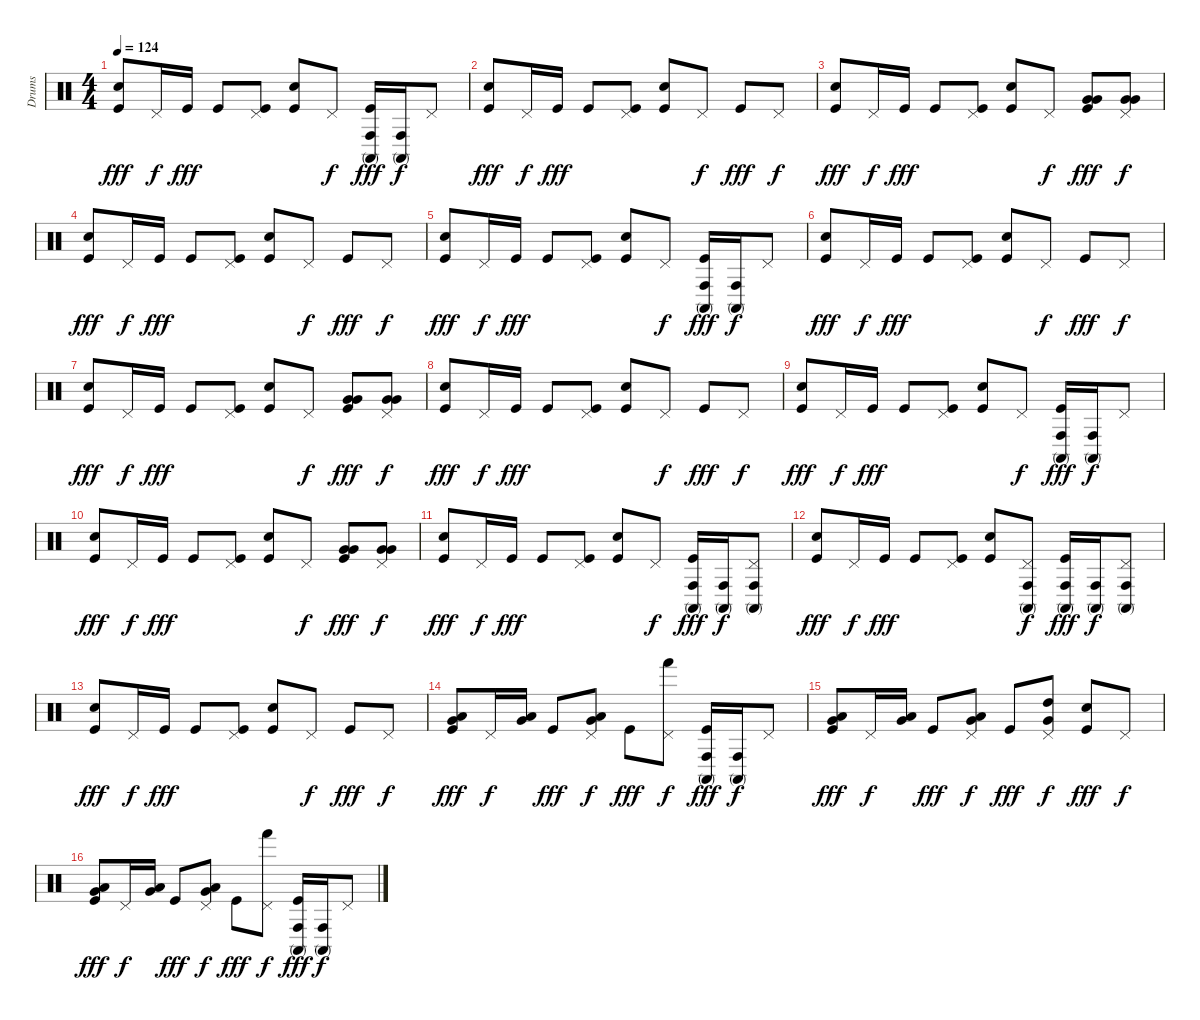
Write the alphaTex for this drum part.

\track ("Drums" "Drums") {instrument percussion}
\staff {score}
\articulation defaults
\ts (4 4)
\tempo 124
\clef neutral
\ks c
("Kick (hit)" "Electric Snare (hit)").8{dy fff} "Pedal Hi-Hat (hit)".16{dy f} "Kick (hit)".16{dy fff} "Kick (hit)".8 ("Kick (hit)" "Pedal Hi-Hat (hit)").8 ("Kick (hit)" "Electric Snare (hit)").8 "Pedal Hi-Hat (hit)".8{dy f} ("Kick (hit)" "Conga high (hit)" "Conga high (mute)").16{dy fff} ("Conga high (mute)" "Conga high (hit)").16{dy f} "Pedal Hi-Hat (hit)".8 |
("Kick (hit)" "Electric Snare (hit)").8{dy fff} "Pedal Hi-Hat (hit)".16{dy f} "Kick (hit)".16{dy fff} "Kick (hit)".8 ("Kick (hit)" "Pedal Hi-Hat (hit)").8 ("Kick (hit)" "Electric Snare (hit)").8 "Pedal Hi-Hat (hit)".8{dy f} "Kick (hit)".8{dy fff} "Pedal Hi-Hat (hit)".8{dy f} |
("Kick (hit)" "Electric Snare (hit)").8{dy fff} "Pedal Hi-Hat (hit)".16{dy f} "Kick (hit)".16{dy fff} "Kick (hit)".8 ("Kick (hit)" "Pedal Hi-Hat (hit)").8 ("Kick (hit)" "Electric Snare (hit)").8 "Pedal Hi-Hat (hit)".8{dy f} ("Kick (hit)" "Very Low Tom (hit)" "Very Low Tom (hit)").8{dy fff} ("Pedal Hi-Hat (hit)" "Very Low Tom (hit)" "Very Low Tom (hit)").8{dy f} |
("Kick (hit)" "Electric Snare (hit)").8{dy fff} "Pedal Hi-Hat (hit)".16{dy f} "Kick (hit)".16{dy fff} "Kick (hit)".8 ("Kick (hit)" "Pedal Hi-Hat (hit)").8 ("Kick (hit)" "Electric Snare (hit)").8 "Pedal Hi-Hat (hit)".8{dy f} "Kick (hit)".8{dy fff} "Pedal Hi-Hat (hit)".8{dy f} |
("Kick (hit)" "Electric Snare (hit)").8{dy fff} "Pedal Hi-Hat (hit)".16{dy f} "Kick (hit)".16{dy fff} "Kick (hit)".8 ("Kick (hit)" "Pedal Hi-Hat (hit)").8 ("Kick (hit)" "Electric Snare (hit)").8 "Pedal Hi-Hat (hit)".8{dy f} ("Kick (hit)" "Conga high (hit)" "Conga high (mute)").16{dy fff} ("Conga high (mute)" "Conga high (hit)").16{dy f} "Pedal Hi-Hat (hit)".8 |
("Kick (hit)" "Electric Snare (hit)").8{dy fff} "Pedal Hi-Hat (hit)".16{dy f} "Kick (hit)".16{dy fff} "Kick (hit)".8 ("Kick (hit)" "Pedal Hi-Hat (hit)").8 ("Kick (hit)" "Electric Snare (hit)").8 "Pedal Hi-Hat (hit)".8{dy f} "Kick (hit)".8{dy fff} "Pedal Hi-Hat (hit)".8{dy f} |
("Kick (hit)" "Electric Snare (hit)").8{dy fff} "Pedal Hi-Hat (hit)".16{dy f} "Kick (hit)".16{dy fff} "Kick (hit)".8 ("Kick (hit)" "Pedal Hi-Hat (hit)").8 ("Kick (hit)" "Electric Snare (hit)").8 "Pedal Hi-Hat (hit)".8{dy f} ("Kick (hit)" "Very Low Tom (hit)" "Very Low Tom (hit)").8{dy fff} ("Pedal Hi-Hat (hit)" "Very Low Tom (hit)" "Very Low Tom (hit)").8{dy f} |
("Kick (hit)" "Electric Snare (hit)").8{dy fff} "Pedal Hi-Hat (hit)".16{dy f} "Kick (hit)".16{dy fff} "Kick (hit)".8 ("Kick (hit)" "Pedal Hi-Hat (hit)").8 ("Kick (hit)" "Electric Snare (hit)").8 "Pedal Hi-Hat (hit)".8{dy f} "Kick (hit)".8{dy fff} "Pedal Hi-Hat (hit)".8{dy f} |
("Kick (hit)" "Electric Snare (hit)").8{dy fff} "Pedal Hi-Hat (hit)".16{dy f} "Kick (hit)".16{dy fff} "Kick (hit)".8 ("Kick (hit)" "Pedal Hi-Hat (hit)").8 ("Kick (hit)" "Electric Snare (hit)").8 "Pedal Hi-Hat (hit)".8{dy f} ("Kick (hit)" "Conga high (hit)" "Conga high (mute)").16{dy fff} ("Conga high (mute)" "Conga high (hit)").16{dy f} "Pedal Hi-Hat (hit)".8 |
("Kick (hit)" "Electric Snare (hit)").8{dy fff} "Pedal Hi-Hat (hit)".16{dy f} "Kick (hit)".16{dy fff} "Kick (hit)".8 ("Kick (hit)" "Pedal Hi-Hat (hit)").8 ("Kick (hit)" "Electric Snare (hit)").8 "Pedal Hi-Hat (hit)".8{dy f} ("Kick (hit)" "Very Low Tom (hit)" "Very Low Tom (hit)").8{dy fff} ("Pedal Hi-Hat (hit)" "Very Low Tom (hit)" "Very Low Tom (hit)").8{dy f} |
("Kick (hit)" "Electric Snare (hit)").8{dy fff} "Pedal Hi-Hat (hit)".16{dy f} "Kick (hit)".16{dy fff} "Kick (hit)".8 ("Kick (hit)" "Pedal Hi-Hat (hit)").8 ("Kick (hit)" "Electric Snare (hit)").8 "Pedal Hi-Hat (hit)".8{dy f} ("Kick (hit)" "Conga high (mute)" "Conga high (hit)").16{dy fff} ("Conga high (mute)" "Conga high (hit)").16{dy f} ("Pedal Hi-Hat (hit)" "Conga high (hit)" "Conga high (mute)").8 |
("Kick (hit)" "Electric Snare (hit)").8{dy fff} "Pedal Hi-Hat (hit)".16{dy f} "Kick (hit)".16{dy fff} "Kick (hit)".8 ("Kick (hit)" "Pedal Hi-Hat (hit)").8 ("Kick (hit)" "Electric Snare (hit)").8 ("Pedal Hi-Hat (hit)" "Conga high (hit)" "Conga high (mute)").8{dy f} ("Kick (hit)" "Conga high (hit)" "Conga high (mute)").16{dy fff} ("Conga high (mute)" "Conga high (hit)").16{dy f} ("Pedal Hi-Hat (hit)" "Conga high (hit)" "Conga high (mute)").8 |
("Kick (hit)" "Electric Snare (hit)").8{dy fff} "Pedal Hi-Hat (hit)".16{dy f} "Kick (hit)".16{dy fff} "Kick (hit)".8 ("Kick (hit)" "Pedal Hi-Hat (hit)").8 ("Kick (hit)" "Electric Snare (hit)").8 "Pedal Hi-Hat (hit)".8{dy f} "Kick (hit)".8{dy fff} "Pedal Hi-Hat (hit)".8{dy f} |
("Kick (hit)" "Very Low Tom (hit)" "Low Tom (hit)").8{dy fff} "Pedal Hi-Hat (hit)".16{dy f} ("Very Low Tom (hit)" "Low Tom (hit)").16 "Kick (hit)".8{dy fff} ("Pedal Hi-Hat (hit)" "Very Low Tom (hit)" "Low Tom (hit)").8{dy f} "Kick (hit)".8{dy fff} ("Pedal Hi-Hat (hit)" "Hand (hit)").8{dy f} ("Kick (hit)" "Conga high (mute)" "Conga high (hit)").16{dy fff} ("Conga high (mute)" "Conga high (hit)").16{dy f} "Pedal Hi-Hat (hit)".8 |
("Kick (hit)" "Very Low Tom (hit)" "Low Tom (hit)").8{dy fff} "Pedal Hi-Hat (hit)".16{dy f} ("Very Low Tom (hit)" "Low Tom (hit)").16 "Kick (hit)".8{dy fff} ("Pedal Hi-Hat (hit)" "Very Low Tom (hit)" "Low Tom (hit)").8{dy f} "Kick (hit)".8{dy fff} ("Pedal Hi-Hat (hit)" "High Tom (hit)" "Very Low Tom (hit)").8{dy f} ("Kick (hit)" "Electric Snare (hit)").8{dy fff} "Pedal Hi-Hat (hit)".8{dy f} |
("Kick (hit)" "Very Low Tom (hit)" "Low Tom (hit)").8{dy fff} "Pedal Hi-Hat (hit)".16{dy f} ("Very Low Tom (hit)" "Low Tom (hit)").16 "Kick (hit)".8{dy fff} ("Pedal Hi-Hat (hit)" "Very Low Tom (hit)" "Low Tom (hit)").8{dy f} "Kick (hit)".8{dy fff} ("Pedal Hi-Hat (hit)" "Hand (hit)").8{dy f} ("Kick (hit)" "Conga high (hit)" "Conga high (mute)").16{dy fff} ("Conga high (mute)" "Conga high (hit)").16{dy f} "Pedal Hi-Hat (hit)".8
